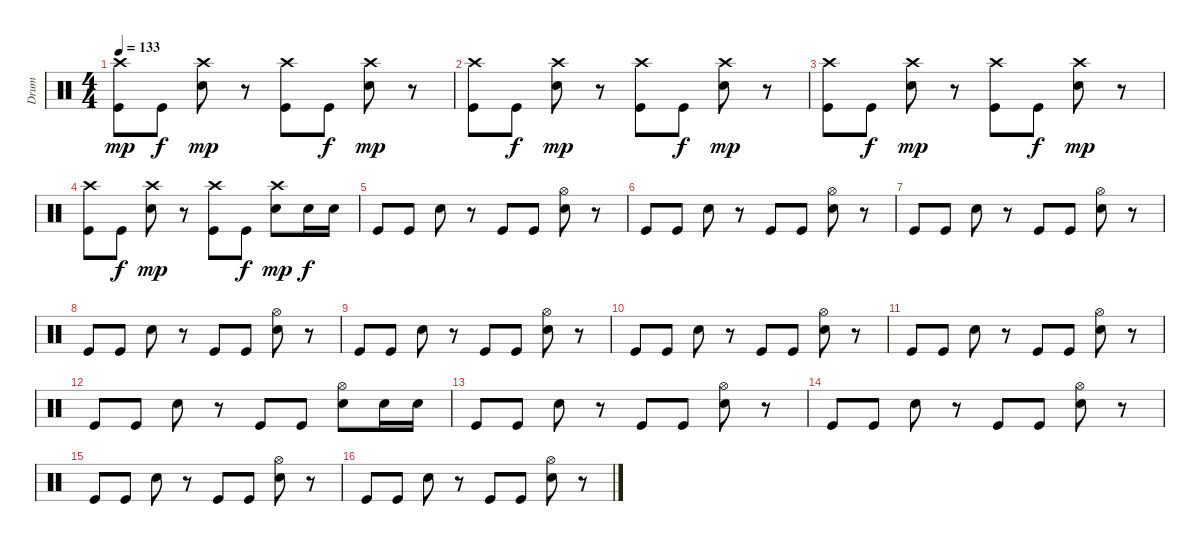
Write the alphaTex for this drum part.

\track ("Drum" "Drum") {instrument percussion}
\staff {score}
\articulation defaults
\ts (4 4)
\tempo 133
\clef neutral
\ks c
("Crash high (hit)" "Kick (hit)").8{dy mp} "Kick (hit)".8{dy f} ("Crash high (hit)" "Snare (hit) 2").8{dy mp} r.8 ("Crash high (hit)" "Kick (hit)").8 "Kick (hit)".8{dy f} ("Crash high (hit)" "Snare (hit) 2").8{dy mp} r.8 |
("Crash high (hit)" "Kick (hit)").8 "Kick (hit)".8{dy f} ("Crash high (hit)" "Snare (hit) 2").8{dy mp} r.8 ("Crash high (hit)" "Kick (hit)").8 "Kick (hit)".8{dy f} ("Crash high (hit)" "Snare (hit) 2").8{dy mp} r.8 |
("Crash high (hit)" "Kick (hit)").8 "Kick (hit)".8{dy f} ("Crash high (hit)" "Snare (hit) 2").8{dy mp} r.8 ("Crash high (hit)" "Kick (hit)").8 "Kick (hit)".8{dy f} ("Crash high (hit)" "Snare (hit) 2").8{dy mp} r.8 |
("Crash high (hit)" "Kick (hit)").8 "Kick (hit)".8{dy f} ("Crash high (hit)" "Snare (hit) 2").8{dy mp} r.8 ("Crash high (hit)" "Kick (hit)").8 "Kick (hit)".8{dy f} ("Crash high (hit)" "Snare (hit) 2").8{dy mp} "Snare (hit) 2".16{dy f} "Snare (hit) 2".16 |
"Kick (hit)".8 "Kick (hit)".8 "Snare (hit) 2".8 r.8 "Kick (hit)".8 "Kick (hit)".8 ("Hi-Hat (open)" "Snare (hit) 2").8 r.8 |
"Kick (hit)".8 "Kick (hit)".8 "Snare (hit) 2".8 r.8 "Kick (hit)".8 "Kick (hit)".8 ("Hi-Hat (open)" "Snare (hit) 2").8 r.8 |
"Kick (hit)".8 "Kick (hit)".8 "Snare (hit) 2".8 r.8 "Kick (hit)".8 "Kick (hit)".8 ("Hi-Hat (open)" "Snare (hit) 2").8 r.8 |
"Kick (hit)".8 "Kick (hit)".8 "Snare (hit) 2".8 r.8 "Kick (hit)".8 "Kick (hit)".8 ("Hi-Hat (open)" "Snare (hit) 2").8 r.8 |
"Kick (hit)".8 "Kick (hit)".8 "Snare (hit) 2".8 r.8 "Kick (hit)".8 "Kick (hit)".8 ("Hi-Hat (open)" "Snare (hit) 2").8 r.8 |
"Kick (hit)".8 "Kick (hit)".8 "Snare (hit) 2".8 r.8 "Kick (hit)".8 "Kick (hit)".8 ("Hi-Hat (open)" "Snare (hit) 2").8 r.8 |
"Kick (hit)".8 "Kick (hit)".8 "Snare (hit) 2".8 r.8 "Kick (hit)".8 "Kick (hit)".8 ("Hi-Hat (open)" "Snare (hit) 2").8 r.8 |
"Kick (hit)".8 "Kick (hit)".8 "Snare (hit) 2".8 r.8 "Kick (hit)".8 "Kick (hit)".8 ("Hi-Hat (open)" "Snare (hit) 2").8 "Snare (hit) 2".16 "Snare (hit) 2".16 |
"Kick (hit)".8 "Kick (hit)".8 "Snare (hit) 2".8 r.8 "Kick (hit)".8 "Kick (hit)".8 ("Hi-Hat (open)" "Snare (hit) 2").8 r.8 |
"Kick (hit)".8 "Kick (hit)".8 "Snare (hit) 2".8 r.8 "Kick (hit)".8 "Kick (hit)".8 ("Hi-Hat (open)" "Snare (hit) 2").8 r.8 |
"Kick (hit)".8 "Kick (hit)".8 "Snare (hit) 2".8 r.8 "Kick (hit)".8 "Kick (hit)".8 ("Hi-Hat (open)" "Snare (hit) 2").8 r.8 |
"Kick (hit)".8 "Kick (hit)".8 "Snare (hit) 2".8 r.8 "Kick (hit)".8 "Kick (hit)".8 ("Hi-Hat (open)" "Snare (hit) 2").8 r.8
